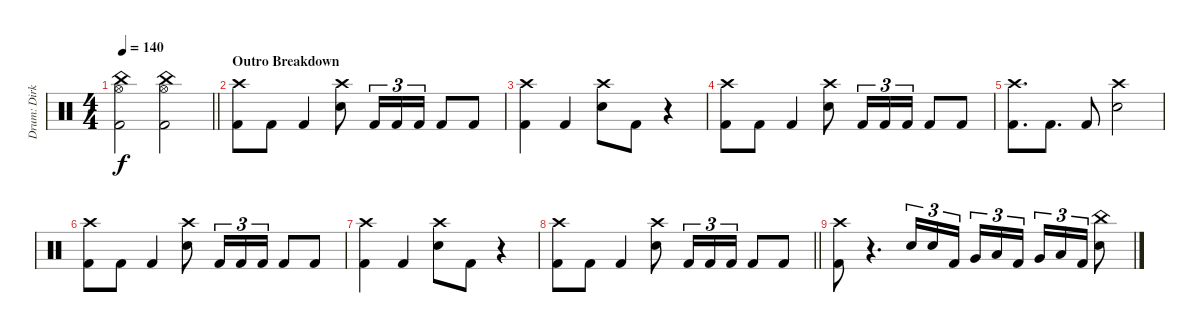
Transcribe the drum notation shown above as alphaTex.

\track ("Drum: Dirk" "Drum: Dirk") {instrument percussion}
\staff {score}
\articulation defaults
\ts (4 4)
\tempo 140
\clef neutral
\barLineRight lightlight
\ks c
("China (hit)" "Hi-Hat (open)" "Kick (hit) 2").2{dy f} ("China (hit)" "Hi-Hat (open)" "Kick (hit) 2").2 |
\section ("" "Outro Breakdown")
("Crash high (hit)" "Kick (hit) 2").8 "Kick (hit) 2".8 "Kick (hit) 2".4 ("Crash high (hit)" "Electric Snare (hit)").8 "Kick (hit) 2".16{tu (3 2)} "Kick (hit) 2".16{tu (3 2)} "Kick (hit) 2".16{tu (3 2)} "Kick (hit) 2".8 "Kick (hit) 2".8 |
("Crash high (hit)" "Kick (hit) 2").4 "Kick (hit) 2".4 ("Crash high (hit)" "Electric Snare (hit)").8 "Kick (hit) 2".8 r.4 |
("Crash high (hit)" "Kick (hit) 2").8 "Kick (hit) 2".8 "Kick (hit) 2".4 ("Crash high (hit)" "Electric Snare (hit)").8 "Kick (hit) 2".16{tu (3 2)} "Kick (hit) 2".16{tu (3 2)} "Kick (hit) 2".16{tu (3 2)} "Kick (hit) 2".8 "Kick (hit) 2".8 |
("Crash high (hit)" "Kick (hit) 2").8{d} "Kick (hit) 2".8{d} "Kick (hit) 2".8 ("Crash high (hit)" "Electric Snare (hit)").2 |
("Crash high (hit)" "Kick (hit) 2").8 "Kick (hit) 2".8 "Kick (hit) 2".4 ("Crash high (hit)" "Electric Snare (hit)").8 "Kick (hit) 2".16{tu (3 2)} "Kick (hit) 2".16{tu (3 2)} "Kick (hit) 2".16{tu (3 2)} "Kick (hit) 2".8 "Kick (hit) 2".8 |
("Crash high (hit)" "Kick (hit) 2").4 "Kick (hit) 2".4 ("Crash high (hit)" "Electric Snare (hit)").8 "Kick (hit) 2".8 r.4 |
\barLineRight lightlight
("Crash high (hit)" "Kick (hit) 2").8 "Kick (hit) 2".8 "Kick (hit) 2".4 ("Crash high (hit)" "Electric Snare (hit)").8 "Kick (hit) 2".16{tu (3 2)} "Kick (hit) 2".16{tu (3 2)} "Kick (hit) 2".16{tu (3 2)} "Kick (hit) 2".8 "Kick (hit) 2".8 |
("Crash high (hit)" "Kick (hit) 2").8 r.4{d} "Electric Snare (hit)".16{tu (3 2)} "Electric Snare (hit)".16{tu (3 2)} "Kick (hit) 2".16{tu (3 2) beam splitsecondary} "Very Low Tom (hit)".16{tu (3 2)} "Low Tom (hit)".16{tu (3 2)} "Kick (hit) 2".16{tu (3 2)} "Very Low Tom (hit)".16{tu (3 2)} "Low Tom (hit)".16{tu (3 2)} "Kick (hit) 2".16{tu (3 2)} ("China (hit)" "Electric Snare (hit)").8
